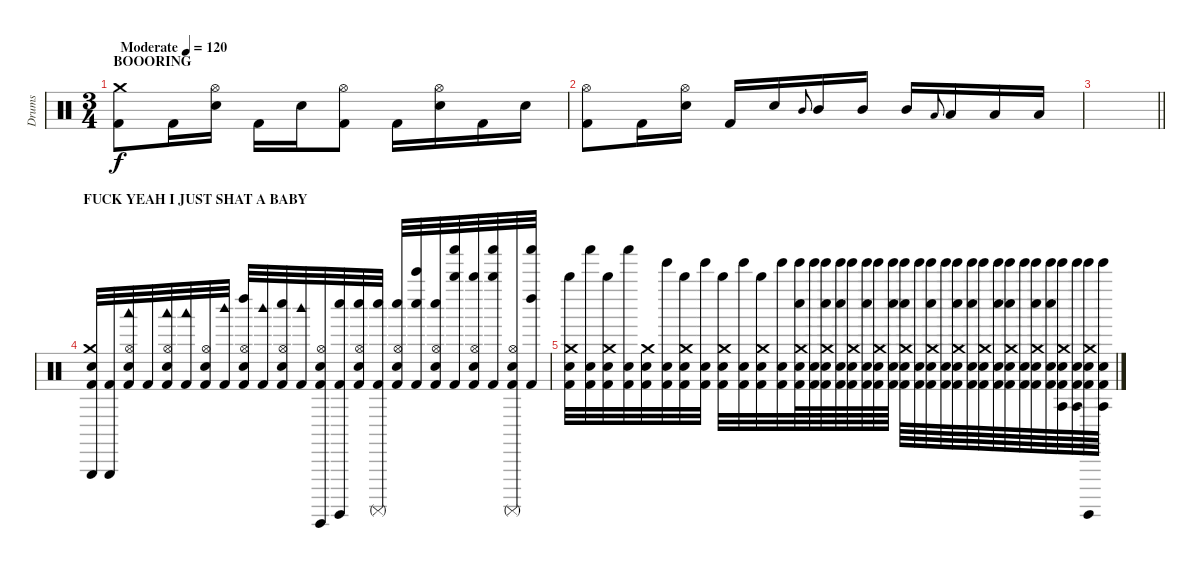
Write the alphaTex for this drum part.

\track ("Drums" "Drums") {instrument percussion}
\staff {score}
\articulation defaults
\ts (3 4)
\section ("" "BOOORING")
\tempo (120 "Moderate")
\clef neutral
\ks c
("Crash medium (hit)" "Kick (hit) 2").8{dy f} "Kick (hit) 2".16 ("Hi-Hat (open)" "Electric Snare (hit)").16 "Kick (hit) 2".16 "Electric Snare (hit)".16 ("Hi-Hat (open)" "Kick (hit) 2").8 "Kick (hit) 2".16 ("Hi-Hat (open)" "Electric Snare (hit)").16 "Kick (hit) 2".16 "Electric Snare (hit)".16 |
("Hi-Hat (open)" "Kick (hit) 2").8 "Kick (hit) 2".16 ("Hi-Hat (open)" "Electric Snare (hit)").16 "Kick (hit) 2".16 "Electric Snare (hit)".16 "Mid Tom (hit)".8{gr onbeat} "Mid Tom (hit)".16 "Mid Tom (hit)".16 "Mid Tom (hit)".16 "Low Tom (hit)".8{gr onbeat} "Low Tom (hit)".16 "Low Tom (hit)".16 "Low Tom (hit)".16 |
\barLineRight lightlight
|
\section ("" "FUCK YEAH I JUST SHAT A BABY")
("Triangle (hit)" "Crash medium (hit)" "Electric Snare (hit)" "Kick (hit) 2").32{volume 16} ("Triangle (hit)" "Kick (hit) 2").32 ("Woodblock low (hit)" "Hi-Hat (open)" "Electric Snare (hit)" "Kick (hit) 2").32 "Kick (hit) 2".32 ("Woodblock low (hit)" "Hi-Hat (open)" "Electric Snare (hit)" "Kick (hit) 2").32 ("Woodblock low (hit)" "Kick (hit) 2").32 ("Hi-Hat (open)" "Electric Snare (hit)" "Kick (hit) 2").32 ("Woodblock high (hit)" "Kick (hit) 2").32 ("Left Maraca (hit)" "Hi-Hat (open)" "Electric Snare (hit)" "Kick (hit) 2").32 ("Woodblock high (hit)" "Kick (hit) 2").32 ("Whistle low (hit)" "Hi-Hat (open)" "Electric Snare (hit)" "Kick (hit) 2").32 ("Woodblock high (hit)" "Kick (hit) 2").32 ("Guiro (hit)" "Hi-Hat (open)" "Electric Snare (hit)" "Kick (hit) 2").32 ("Whistle low (hit)" "Surdo (hit)" "Kick (hit) 2").32 ("Whistle low (hit)" "Hi-Hat (open)" "Electric Snare (hit)" "Kick (hit) 2").32 ("Whistle low (hit)" "Surdo (mute)" "Kick (hit) 2").32 ("Whistle low (hit)" "Hi-Hat (open)" "Electric Snare (hit)" "Kick (hit) 2").32 ("Whistle low (hit)" "Bell Tree (hit)" "Kick (hit) 2").32 ("Whistle low (hit)" "Hi-Hat (open)" "Electric Snare (hit)" "Kick (hit) 2").32 ("Whistle high (hit)" "Shaker (hit)" "Kick (hit) 2").32 ("Whistle high (hit)" "Hi-Hat (open)" "Electric Snare (hit)" "Kick (hit) 2").32 ("Whistle high (hit)" "Shaker (hit)" "Kick (hit) 2").32 ("Surdo (mute)" "Hi-Hat (open)" "Electric Snare (hit)" "Kick (hit) 2").32 ("Left Maraca (hit)" "Shaker (hit)" "Kick (hit) 2").32 |
("Whistle high (hit)" "Crash medium (hit)" "Electric Snare (hit)" "Kick (hit) 2").32 ("Shaker (hit)" "Electric Snare (hit)" "Kick (hit) 2").32 ("Whistle high (hit)" "Crash medium (hit)" "Electric Snare (hit)" "Kick (hit) 2").32 ("Shaker (hit)" "Electric Snare (hit)" "Kick (hit) 2").32 ("Crash medium (hit)" "Electric Snare (hit)" "Kick (hit) 2").32 ("Tinkle Bell (hit)" "Electric Snare (hit)" "Kick (hit) 2").32 ("Whistle high (hit)" "Crash medium (hit)" "Electric Snare (hit)" "Kick (hit) 2").32 ("Tinkle Bell (hit)" "Electric Snare (hit)" "Kick (hit) 2").32 ("Whistle high (hit)" "Crash medium (hit)" "Electric Snare (hit)" "Kick (hit) 2").32 ("Tinkle Bell (hit)" "Electric Snare (hit)" "Kick (hit) 2").32 ("Whistle high (hit)" "Crash medium (hit)" "Electric Snare (hit)" "Kick (hit) 2").32 ("Tinkle Bell (hit)" "Electric Snare (hit)" "Kick (hit) 2").32 ("Whistle low (hit)" "Tinkle Bell (hit)" "Crash medium (hit)" "Electric Snare (hit)" "Kick (hit) 2").64 ("Tinkle Bell (hit)" "Electric Snare (hit)" "Kick (hit) 2").64 ("Whistle low (hit)" "Tinkle Bell (hit)" "Crash medium (hit)" "Electric Snare (hit)" "Kick (hit) 2").64 ("Whistle low (hit)" "Tinkle Bell (hit)" "Electric Snare (hit)" "Kick (hit) 2").64 ("Tinkle Bell (hit)" "Crash medium (hit)" "Electric Snare (hit)" "Kick (hit) 2").64 ("Whistle low (hit)" "Tinkle Bell (hit)" "Electric Snare (hit)" "Kick (hit) 2").64 ("Tinkle Bell (hit)" "Crash medium (hit)" "Electric Snare (hit)" "Kick (hit) 2").64 ("Whistle low (hit)" "Tinkle Bell (hit)" "Electric Snare (hit)" "Kick (hit) 2").64 ("Whistle low (hit)" "Tinkle Bell (hit)" "Crash medium (hit)" "Electric Snare (hit)" "Kick (hit) 2").64 ("Tinkle Bell (hit)" "Electric Snare (hit)" "Kick (hit) 2").64 ("Whistle low (hit)" "Tinkle Bell (hit)" "Crash medium (hit)" "Electric Snare (hit)" "Kick (hit) 2").64 ("Tinkle Bell (hit)" "Electric Snare (hit)" "Kick (hit) 2").64 ("Whistle low (hit)" "Tinkle Bell (hit)" "Crash medium (hit)" "Electric Snare (hit)" "Kick (hit) 2").64 ("Whistle low (hit)" "Tinkle Bell (hit)" "Electric Snare (hit)" "Kick (hit) 2").64 ("Tinkle Bell (hit)" "Crash medium (hit)" "Electric Snare (hit)" "Kick (hit) 2").64 ("Whistle low (hit)" "Tinkle Bell (hit)" "Electric Snare (hit)" "Kick (hit) 2").64 ("Whistle low (hit)" "Tinkle Bell (hit)" "Crash medium (hit)" "Electric Snare (hit)" "Kick (hit) 2").64 ("Tinkle Bell (hit)" "Electric Snare (hit)" "Kick (hit) 2").64 ("Whistle low (hit)" "Tinkle Bell (hit)" "Crash medium (hit)" "Electric Snare (hit)" "Kick (hit) 2").64 ("Whistle low (hit)" "Tinkle Bell (hit)" "Electric Snare (hit)" "Kick (hit) 2").64 ("Agogo tow (hit)" "Tinkle Bell (hit)" "Crash medium (hit)" "Electric Snare (hit)" "Kick (hit) 2").64 ("Agogo tow (hit)" "Tinkle Bell (hit)" "Electric Snare (hit)" "Kick (hit) 2").64 ("Surdo (hit)" "Tinkle Bell (hit)" "Crash medium (hit)" "Electric Snare (hit)" "Kick (hit) 2").64 ("Agogo tow (hit)" "Tinkle Bell (hit)" "Electric Snare (hit)" "Kick (hit) 2").64
